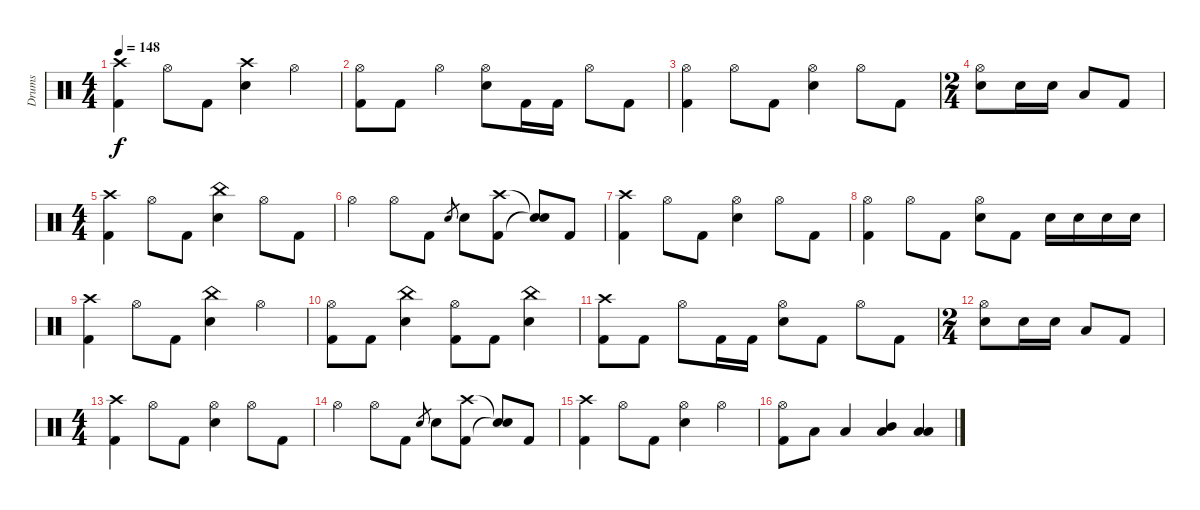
\track ("Drums" "Drums") {instrument percussion}
\staff {score}
\articulation defaults
\ts (4 4)
\tempo 148
\clef neutral
\ks c
("Crash high (hit)" "Kick (hit) 2").4{dy f} "Hi-Hat (open)".8 "Kick (hit) 2".8 ("Crash high (hit)" "Electric Snare (hit)").4 "Hi-Hat (open)".4 |
("Hi-Hat (open)" "Kick (hit) 2").8 "Kick (hit) 2".8 "Hi-Hat (open)".4 ("Hi-Hat (open)" "Electric Snare (hit)").8 "Kick (hit) 2".16 "Kick (hit) 2".16 "Hi-Hat (open)".8 "Kick (hit) 2".8 |
("Hi-Hat (open)" "Kick (hit) 2").4 "Hi-Hat (open)".8 "Kick (hit) 2".8 ("Hi-Hat (open)" "Electric Snare (hit)").4 "Hi-Hat (open)".8 "Kick (hit) 2".8 |
\ts (2 4)
("Hi-Hat (open)" "Electric Snare (hit)").8 "Electric Snare (hit)".16 "Electric Snare (hit)".16 "Low Tom (hit)".8 "Kick (hit) 2".8 |
\ts (4 4)
("Crash high (hit)" "Kick (hit) 2").4 "Hi-Hat (open)".8 "Kick (hit) 2".8 ("China (hit)" "Electric Snare (hit)").4 "Hi-Hat (open)".8 "Kick (hit) 2".8 |
"Hi-Hat (open)".4 "Hi-Hat (open)".8 "Kick (hit) 2".8 "Electric Snare (hit)".8{gr} "Electric Snare (hit)".8 ("Crash high (hit)" "Kick (hit) 2").8 ("Snare (hit)"{t} "Snare (hit)"{t}).8 "Kick (hit) 2".8 |
("Crash high (hit)" "Kick (hit) 2").4 "Hi-Hat (open)".8 "Kick (hit) 2".8 ("Hi-Hat (open)" "Electric Snare (hit)").4 "Hi-Hat (open)".8 "Kick (hit) 2".8 |
("Hi-Hat (open)" "Kick (hit) 2").4 "Hi-Hat (open)".8 "Kick (hit) 2".8 ("Hi-Hat (open)" "Electric Snare (hit)").8 "Kick (hit) 2".8 "Electric Snare (hit)".16 "Electric Snare (hit)".16 "Electric Snare (hit)".16 "Electric Snare (hit)".16 |
("Crash high (hit)" "Kick (hit) 2").4 "Hi-Hat (open)".8 "Kick (hit) 2".8 ("China (hit)" "Electric Snare (hit)").4 "Hi-Hat (open)".4 |
("Hi-Hat (open)" "Kick (hit) 2").8 "Kick (hit) 2".8 ("China (hit)" "Electric Snare (hit)").4 ("Hi-Hat (open)" "Kick (hit) 2").8 "Kick (hit) 2".8 ("China (hit)" "Electric Snare (hit)").4 |
("Crash high (hit)" "Kick (hit) 2").8 "Kick (hit) 2".8 "Hi-Hat (open)".8 "Kick (hit) 2".16 "Kick (hit) 2".16 ("Hi-Hat (open)" "Electric Snare (hit)").8 "Kick (hit) 2".8 "Hi-Hat (open)".8 "Kick (hit) 2".8 |
\ts (2 4)
("Hi-Hat (open)" "Electric Snare (hit)").8 "Electric Snare (hit)".16 "Electric Snare (hit)".16 "Low Tom (hit)".8 "Kick (hit) 2".8 |
\ts (4 4)
("Crash high (hit)" "Kick (hit) 2").4 "Hi-Hat (open)".8 "Kick (hit) 2".8 ("Hi-Hat (open)" "Electric Snare (hit)").4 "Hi-Hat (open)".8 "Kick (hit) 2".8 |
"Hi-Hat (open)".4 "Hi-Hat (open)".8 "Kick (hit) 2".8 "Electric Snare (hit)".8{gr} "Electric Snare (hit)".8 ("Crash high (hit)" "Kick (hit) 2").8 ("Snare (hit)"{t} "Snare (hit)"{t}).8 "Kick (hit) 2".8 |
("Crash high (hit)" "Kick (hit) 2").4 "Hi-Hat (open)".8 "Kick (hit) 2".8 ("Hi-Hat (open)" "Electric Snare (hit)").4 "Hi-Hat (open)".4 |
("Hi-Hat (open)" "Kick (hit) 2").8 "Low Tom (hit)".8 "Low Tom (hit)".4 ("Mid Tom (hit)" "Low Tom (hit)").4 ("Low Tom (hit)" "Low Floor Tom (hit)").4
